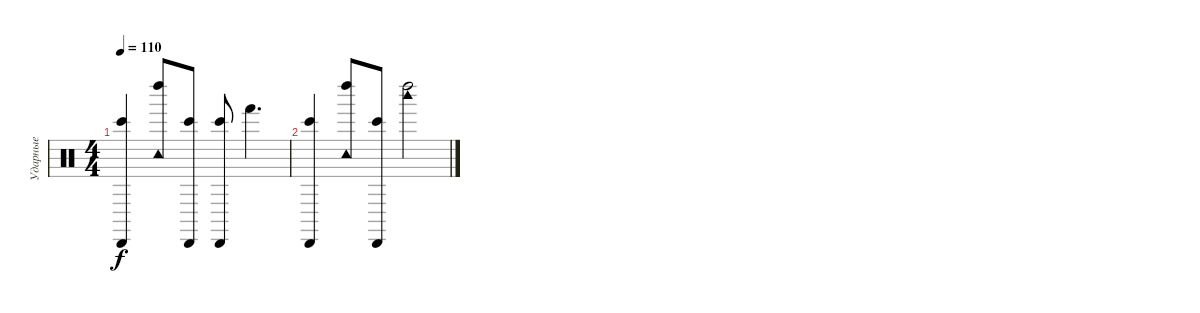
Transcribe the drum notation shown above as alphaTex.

\track ("Ударные" "Ударные") {instrument percussion}
\staff {score}
\articulation defaults
\ts (4 4)
\tempo 110
\clef neutral
\ks c
("Bongo High (hit)" "Cabasa (hit)").4{dy f} ("Tambourine (hit)" "Left Maraca (hit)").8 ("Bongo High (hit)" "Cabasa (hit)").8 ("Bongo High (hit)" "Cabasa (hit)").8 "Hand (hit)".4{d} |
("Bongo High (hit)" "Cabasa (hit)").4 ("Tambourine (hit)" "Left Maraca (hit)").8 ("Bongo High (hit)" "Cabasa (hit)").8 ("Woodblock high (hit)" "Left Maraca (hit)").2
